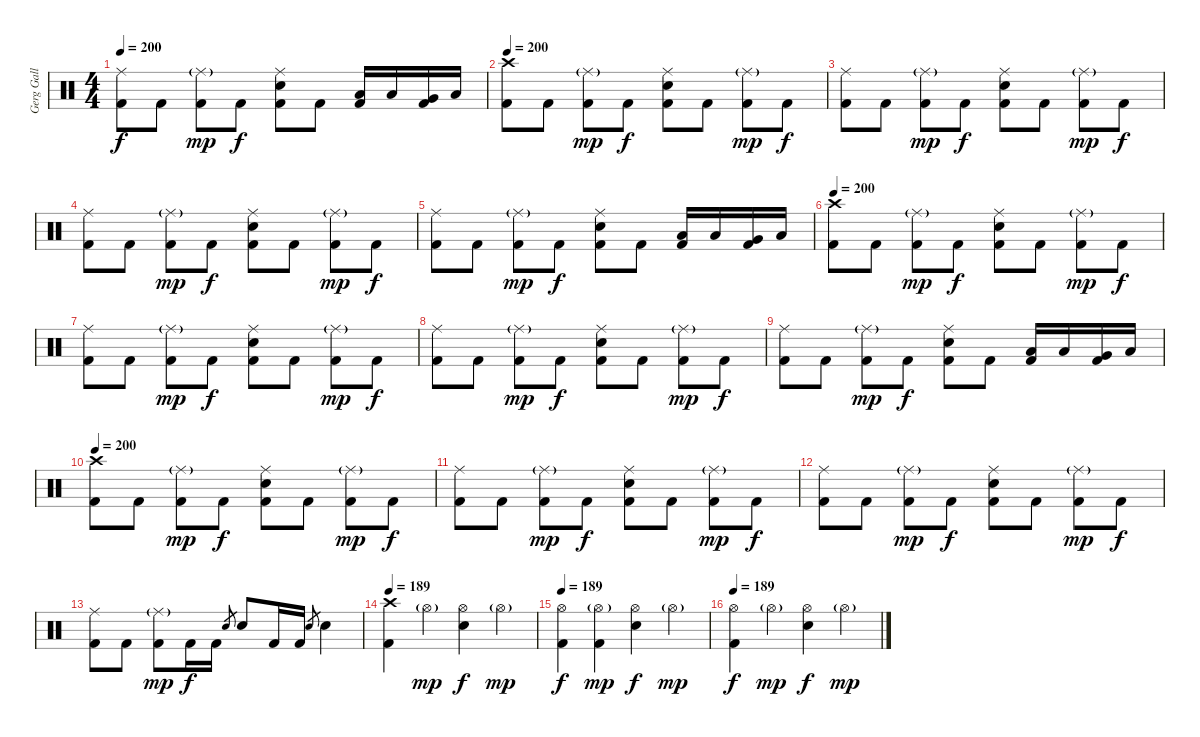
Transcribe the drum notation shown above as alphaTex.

\track ("Gerg Gall (Drums)" "Gerg Gall ") {instrument percussion}
\staff {score}
\articulation defaults
\ts (4 4)
\tempo 200
\clef neutral
\ks c
("Ride (middle)" "Kick (hit) 2").8{dy f} "Kick (hit) 2".8 ("Ride (middle)"{g} "Kick (hit) 2").8{dy mp} "Kick (hit) 2".8{dy f} ("Snare (hit) 2" "Ride (middle)" "Kick (hit) 2").8 "Kick (hit) 2".8 ("Low Tom (hit)" "Kick (hit) 2").16 "Low Tom (hit)".16 ("Very Low Tom (hit)" "Kick (hit) 2").16 "Low Floor Tom (hit)".16 |
\tempo 200
("Crash high (hit)" "Kick (hit) 2").8 "Kick (hit) 2".8 ("Ride (middle)"{g} "Kick (hit) 2").8{dy mp} "Kick (hit) 2".8{dy f} ("Snare (hit) 2" "Ride (middle)" "Kick (hit) 2").8 "Kick (hit) 2".8 ("Ride (middle)"{g} "Kick (hit) 2").8{dy mp} "Kick (hit) 2".8{dy f} |
("Ride (middle)" "Kick (hit) 2").8 "Kick (hit) 2".8 ("Ride (middle)"{g} "Kick (hit) 2").8{dy mp} "Kick (hit) 2".8{dy f} ("Snare (hit) 2" "Ride (middle)" "Kick (hit) 2").8 "Kick (hit) 2".8 ("Ride (middle)"{g} "Kick (hit) 2").8{dy mp} "Kick (hit) 2".8{dy f} |
("Ride (middle)" "Kick (hit) 2").8 "Kick (hit) 2".8 ("Ride (middle)"{g} "Kick (hit) 2").8{dy mp} "Kick (hit) 2".8{dy f} ("Snare (hit) 2" "Ride (middle)" "Kick (hit) 2").8 "Kick (hit) 2".8 ("Ride (middle)"{g} "Kick (hit) 2").8{dy mp} "Kick (hit) 2".8{dy f} |
("Ride (middle)" "Kick (hit) 2").8 "Kick (hit) 2".8 ("Ride (middle)"{g} "Kick (hit) 2").8{dy mp} "Kick (hit) 2".8{dy f} ("Snare (hit) 2" "Ride (middle)" "Kick (hit) 2").8 "Kick (hit) 2".8 ("Low Tom (hit)" "Kick (hit) 2").16 "Low Tom (hit)".16 ("Very Low Tom (hit)" "Kick (hit) 2").16 "Low Floor Tom (hit)".16 |
\tempo 200
("Crash high (hit)" "Kick (hit) 2").8 "Kick (hit) 2".8 ("Ride (middle)"{g} "Kick (hit) 2").8{dy mp} "Kick (hit) 2".8{dy f} ("Snare (hit) 2" "Ride (middle)" "Kick (hit) 2").8 "Kick (hit) 2".8 ("Ride (middle)"{g} "Kick (hit) 2").8{dy mp} "Kick (hit) 2".8{dy f} |
("Ride (middle)" "Kick (hit) 2").8 "Kick (hit) 2".8 ("Ride (middle)"{g} "Kick (hit) 2").8{dy mp} "Kick (hit) 2".8{dy f} ("Snare (hit) 2" "Ride (middle)" "Kick (hit) 2").8 "Kick (hit) 2".8 ("Ride (middle)"{g} "Kick (hit) 2").8{dy mp} "Kick (hit) 2".8{dy f} |
("Ride (middle)" "Kick (hit) 2").8 "Kick (hit) 2".8 ("Ride (middle)"{g} "Kick (hit) 2").8{dy mp} "Kick (hit) 2".8{dy f} ("Snare (hit) 2" "Ride (middle)" "Kick (hit) 2").8 "Kick (hit) 2".8 ("Ride (middle)"{g} "Kick (hit) 2").8{dy mp} "Kick (hit) 2".8{dy f} |
("Ride (middle)" "Kick (hit) 2").8 "Kick (hit) 2".8 ("Ride (middle)"{g} "Kick (hit) 2").8{dy mp} "Kick (hit) 2".8{dy f} ("Snare (hit) 2" "Ride (middle)" "Kick (hit) 2").8 "Kick (hit) 2".8 ("Low Tom (hit)" "Kick (hit) 2").16 "Low Tom (hit)".16 ("Very Low Tom (hit)" "Kick (hit) 2").16 "Low Floor Tom (hit)".16 |
\tempo 200
("Crash high (hit)" "Kick (hit) 2").8 "Kick (hit) 2".8 ("Ride (middle)"{g} "Kick (hit) 2").8{dy mp} "Kick (hit) 2".8{dy f} ("Snare (hit) 2" "Ride (middle)" "Kick (hit) 2").8 "Kick (hit) 2".8 ("Ride (middle)"{g} "Kick (hit) 2").8{dy mp} "Kick (hit) 2".8{dy f} |
("Ride (middle)" "Kick (hit) 2").8 "Kick (hit) 2".8 ("Ride (middle)"{g} "Kick (hit) 2").8{dy mp} "Kick (hit) 2".8{dy f} ("Snare (hit) 2" "Ride (middle)" "Kick (hit) 2").8 "Kick (hit) 2".8 ("Ride (middle)"{g} "Kick (hit) 2").8{dy mp} "Kick (hit) 2".8{dy f} |
("Ride (middle)" "Kick (hit) 2").8 "Kick (hit) 2".8 ("Ride (middle)"{g} "Kick (hit) 2").8{dy mp} "Kick (hit) 2".8{dy f} ("Snare (hit) 2" "Ride (middle)" "Kick (hit) 2").8 "Kick (hit) 2".8 ("Ride (middle)"{g} "Kick (hit) 2").8{dy mp} "Kick (hit) 2".8{dy f} |
("Ride (middle)" "Kick (hit) 2").8 "Kick (hit) 2".8 ("Ride (middle)"{g} "Kick (hit) 2").8{dy mp} "Kick (hit) 2".16{dy f} "Kick (hit) 2".16 "Snare (hit) 2".8{gr} "Snare (hit) 2".8 "Kick (hit) 2".16 "Kick (hit) 2".16 "Snare (hit) 2".8{gr} "Snare (hit) 2".4 |
\tempo 189
("Crash high (hit)" "Kick (hit) 2").4 "Hi-Hat (open)"{g}.4{dy mp} ("Hi-Hat (open)" "Snare (hit) 2").4{dy f} "Hi-Hat (open)"{g}.4{dy mp} |
\tempo 189
("Hi-Hat (open)" "Kick (hit) 2").4{dy f} ("Hi-Hat (open)"{g} "Kick (hit) 2").4{dy mp} ("Hi-Hat (open)" "Snare (hit) 2").4{dy f} "Hi-Hat (open)"{g}.4{dy mp} |
\tempo 189
("Hi-Hat (open)" "Kick (hit) 2").4{dy f} "Hi-Hat (open)"{g}.4{dy mp} ("Hi-Hat (open)" "Snare (hit) 2").4{dy f} "Hi-Hat (open)"{g}.4{dy mp}
